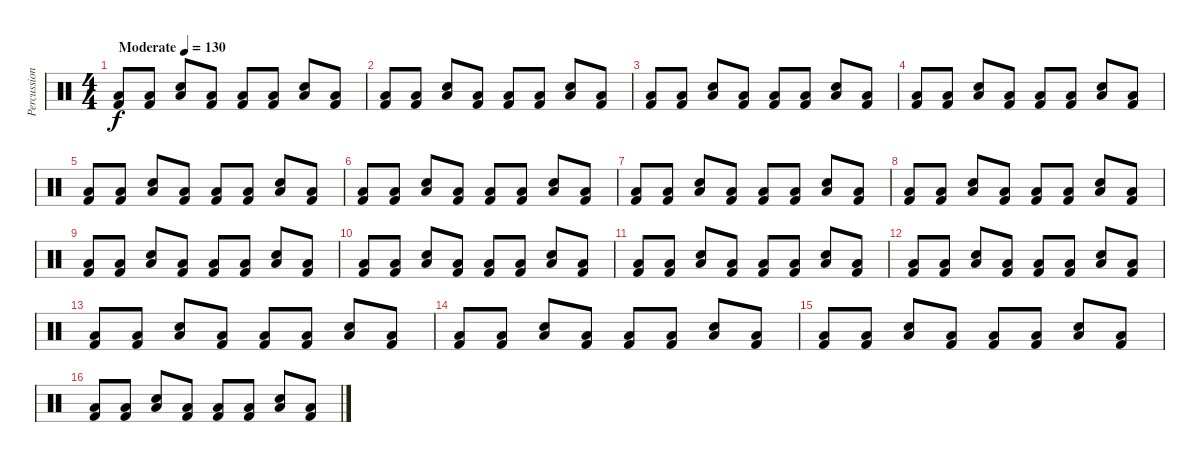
\track ("Percussion" "Percussion") {instrument percussion}
\staff {score}
\articulation defaults
\ts (4 4)
\tempo (130 "Moderate")
\clef neutral
\ks c
("Low Floor Tom (hit)" "Kick (hit) 2").8{dy f} ("Low Floor Tom (hit)" "Kick (hit) 2").8 ("Snare (hit) 2" "Low Floor Tom (hit)").8 ("Low Floor Tom (hit)" "Kick (hit) 2").8 ("Low Floor Tom (hit)" "Kick (hit) 2").8 ("Low Floor Tom (hit)" "Kick (hit) 2").8 ("Snare (hit) 2" "Low Floor Tom (hit)").8 ("Low Floor Tom (hit)" "Kick (hit) 2").8 |
("Low Floor Tom (hit)" "Kick (hit) 2").8 ("Low Floor Tom (hit)" "Kick (hit) 2").8 ("Snare (hit) 2" "Low Floor Tom (hit)").8 ("Low Floor Tom (hit)" "Kick (hit) 2").8 ("Low Floor Tom (hit)" "Kick (hit) 2").8 ("Low Floor Tom (hit)" "Kick (hit) 2").8 ("Snare (hit) 2" "Low Floor Tom (hit)").8 ("Low Floor Tom (hit)" "Kick (hit) 2").8 |
("Low Floor Tom (hit)" "Kick (hit) 2").8 ("Low Floor Tom (hit)" "Kick (hit) 2").8 ("Snare (hit) 2" "Low Floor Tom (hit)").8 ("Low Floor Tom (hit)" "Kick (hit) 2").8 ("Low Floor Tom (hit)" "Kick (hit) 2").8 ("Low Floor Tom (hit)" "Kick (hit) 2").8 ("Snare (hit) 2" "Low Floor Tom (hit)").8 ("Low Floor Tom (hit)" "Kick (hit) 2").8 |
("Low Floor Tom (hit)" "Kick (hit) 2").8 ("Low Floor Tom (hit)" "Kick (hit) 2").8 ("Snare (hit) 2" "Low Floor Tom (hit)").8 ("Low Floor Tom (hit)" "Kick (hit) 2").8 ("Low Floor Tom (hit)" "Kick (hit) 2").8 ("Low Floor Tom (hit)" "Kick (hit) 2").8 ("Snare (hit) 2" "Low Floor Tom (hit)").8 ("Low Floor Tom (hit)" "Kick (hit) 2").8 |
("Low Floor Tom (hit)" "Kick (hit) 2").8 ("Low Floor Tom (hit)" "Kick (hit) 2").8 ("Snare (hit) 2" "Low Floor Tom (hit)").8 ("Low Floor Tom (hit)" "Kick (hit) 2").8 ("Low Floor Tom (hit)" "Kick (hit) 2").8 ("Low Floor Tom (hit)" "Kick (hit) 2").8 ("Snare (hit) 2" "Low Floor Tom (hit)").8 ("Low Floor Tom (hit)" "Kick (hit) 2").8 |
("Low Floor Tom (hit)" "Kick (hit) 2").8 ("Low Floor Tom (hit)" "Kick (hit) 2").8 ("Snare (hit) 2" "Low Floor Tom (hit)").8 ("Low Floor Tom (hit)" "Kick (hit) 2").8 ("Low Floor Tom (hit)" "Kick (hit) 2").8 ("Low Floor Tom (hit)" "Kick (hit) 2").8 ("Snare (hit) 2" "Low Floor Tom (hit)").8 ("Low Floor Tom (hit)" "Kick (hit) 2").8 |
("Low Floor Tom (hit)" "Kick (hit) 2").8 ("Low Floor Tom (hit)" "Kick (hit) 2").8 ("Snare (hit) 2" "Low Floor Tom (hit)").8 ("Low Floor Tom (hit)" "Kick (hit) 2").8 ("Low Floor Tom (hit)" "Kick (hit) 2").8 ("Low Floor Tom (hit)" "Kick (hit) 2").8 ("Snare (hit) 2" "Low Floor Tom (hit)").8 ("Low Floor Tom (hit)" "Kick (hit) 2").8 |
("Low Floor Tom (hit)" "Kick (hit) 2").8 ("Low Floor Tom (hit)" "Kick (hit) 2").8 ("Snare (hit) 2" "Low Floor Tom (hit)").8 ("Low Floor Tom (hit)" "Kick (hit) 2").8 ("Low Floor Tom (hit)" "Kick (hit) 2").8 ("Low Floor Tom (hit)" "Kick (hit) 2").8 ("Snare (hit) 2" "Low Floor Tom (hit)").8 ("Low Floor Tom (hit)" "Kick (hit) 2").8 |
("Low Floor Tom (hit)" "Kick (hit) 2").8 ("Low Floor Tom (hit)" "Kick (hit) 2").8 ("Snare (hit) 2" "Low Floor Tom (hit)").8 ("Low Floor Tom (hit)" "Kick (hit) 2").8 ("Low Floor Tom (hit)" "Kick (hit) 2").8 ("Low Floor Tom (hit)" "Kick (hit) 2").8 ("Snare (hit) 2" "Low Floor Tom (hit)").8 ("Low Floor Tom (hit)" "Kick (hit) 2").8 |
("Low Floor Tom (hit)" "Kick (hit) 2").8 ("Low Floor Tom (hit)" "Kick (hit) 2").8 ("Snare (hit) 2" "Low Floor Tom (hit)").8 ("Low Floor Tom (hit)" "Kick (hit) 2").8 ("Low Floor Tom (hit)" "Kick (hit) 2").8 ("Low Floor Tom (hit)" "Kick (hit) 2").8 ("Snare (hit) 2" "Low Floor Tom (hit)").8 ("Low Floor Tom (hit)" "Kick (hit) 2").8 |
("Low Floor Tom (hit)" "Kick (hit) 2").8 ("Low Floor Tom (hit)" "Kick (hit) 2").8 ("Snare (hit) 2" "Low Floor Tom (hit)").8 ("Low Floor Tom (hit)" "Kick (hit) 2").8 ("Low Floor Tom (hit)" "Kick (hit) 2").8 ("Low Floor Tom (hit)" "Kick (hit) 2").8 ("Snare (hit) 2" "Low Floor Tom (hit)").8 ("Low Floor Tom (hit)" "Kick (hit) 2").8 |
("Low Floor Tom (hit)" "Kick (hit) 2").8 ("Low Floor Tom (hit)" "Kick (hit) 2").8 ("Snare (hit) 2" "Low Floor Tom (hit)").8 ("Low Floor Tom (hit)" "Kick (hit) 2").8 ("Low Floor Tom (hit)" "Kick (hit) 2").8 ("Low Floor Tom (hit)" "Kick (hit) 2").8 ("Snare (hit) 2" "Low Floor Tom (hit)").8 ("Low Floor Tom (hit)" "Kick (hit) 2").8 |
("Low Floor Tom (hit)" "Kick (hit) 2").8 ("Low Floor Tom (hit)" "Kick (hit) 2").8 ("Snare (hit) 2" "Low Floor Tom (hit)").8 ("Low Floor Tom (hit)" "Kick (hit) 2").8 ("Low Floor Tom (hit)" "Kick (hit) 2").8 ("Low Floor Tom (hit)" "Kick (hit) 2").8 ("Snare (hit) 2" "Low Floor Tom (hit)").8 ("Low Floor Tom (hit)" "Kick (hit) 2").8 |
("Low Floor Tom (hit)" "Kick (hit) 2").8 ("Low Floor Tom (hit)" "Kick (hit) 2").8 ("Snare (hit) 2" "Low Floor Tom (hit)").8 ("Low Floor Tom (hit)" "Kick (hit) 2").8 ("Low Floor Tom (hit)" "Kick (hit) 2").8 ("Low Floor Tom (hit)" "Kick (hit) 2").8 ("Snare (hit) 2" "Low Floor Tom (hit)").8 ("Low Floor Tom (hit)" "Kick (hit) 2").8 |
("Low Floor Tom (hit)" "Kick (hit) 2").8 ("Low Floor Tom (hit)" "Kick (hit) 2").8 ("Snare (hit) 2" "Low Floor Tom (hit)").8 ("Low Floor Tom (hit)" "Kick (hit) 2").8 ("Low Floor Tom (hit)" "Kick (hit) 2").8 ("Low Floor Tom (hit)" "Kick (hit) 2").8 ("Snare (hit) 2" "Low Floor Tom (hit)").8 ("Low Floor Tom (hit)" "Kick (hit) 2").8 |
("Low Floor Tom (hit)" "Kick (hit) 2").8 ("Low Floor Tom (hit)" "Kick (hit) 2").8 ("Snare (hit) 2" "Low Floor Tom (hit)").8 ("Low Floor Tom (hit)" "Kick (hit) 2").8 ("Low Floor Tom (hit)" "Kick (hit) 2").8 ("Low Floor Tom (hit)" "Kick (hit) 2").8 ("Snare (hit) 2" "Low Floor Tom (hit)").8 ("Low Floor Tom (hit)" "Kick (hit) 2").8
